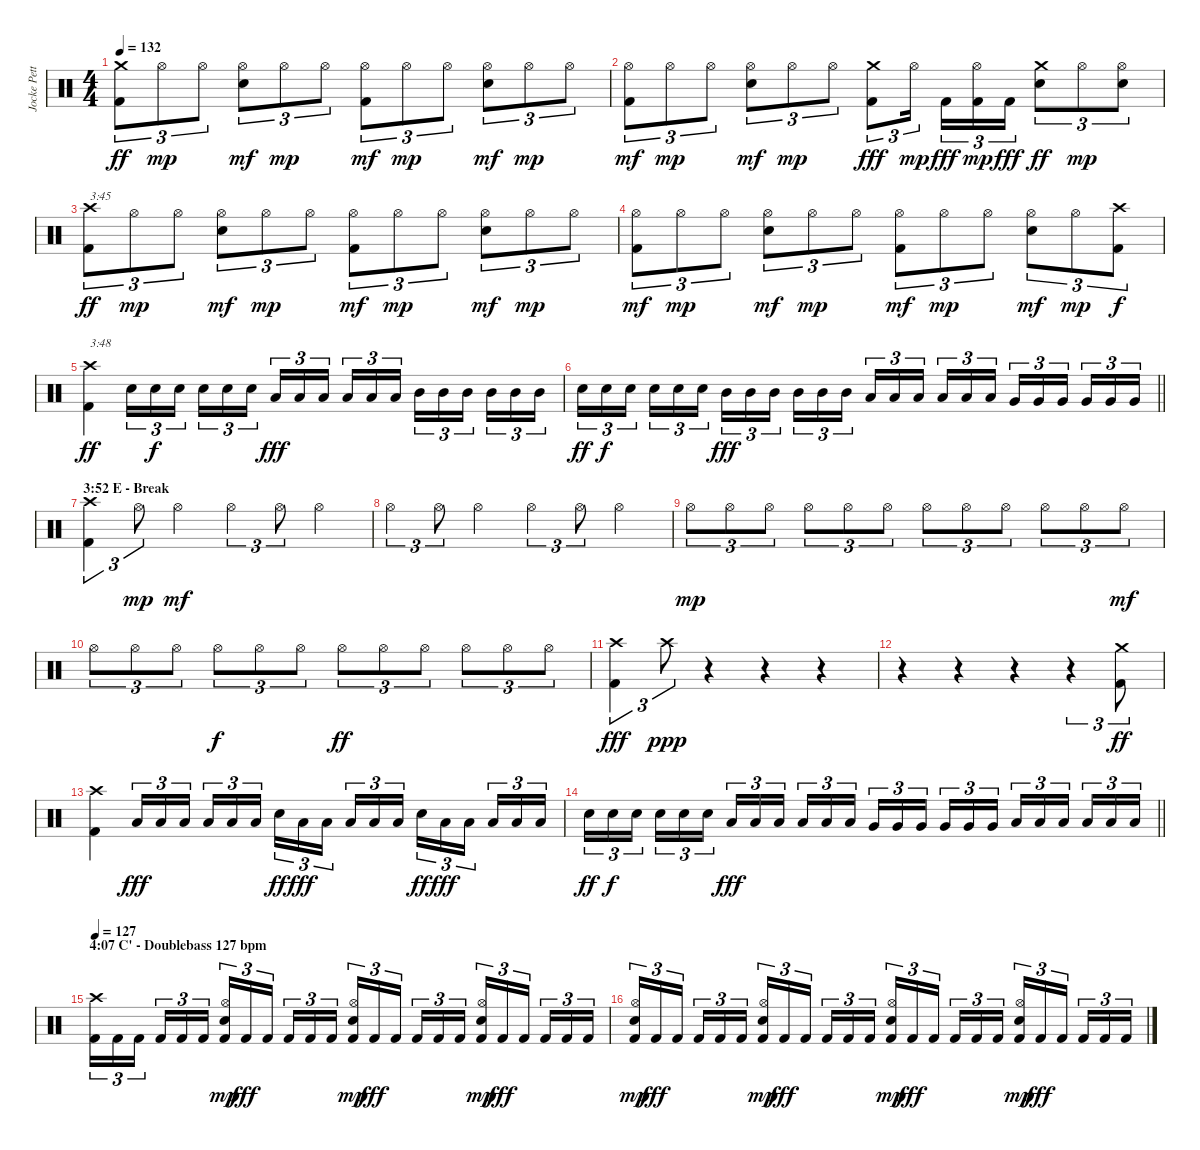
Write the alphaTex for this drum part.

\track ("Jocke Pettersson" "Jocke Pett") {instrument percussion}
\staff {score}
\articulation defaults
\ts (4 4)
\tempo 132
\clef neutral
\ks c
("Kick (hit) 2" "Crash medium (hit)").8{tu (3 2) dy ff} "Hi-Hat (open)".8{tu (3 2) dy mp} "Hi-Hat (open)".8{tu (3 2)} ("Electric Snare (hit)" "Hi-Hat (open)").8{tu (3 2) dy mf} "Hi-Hat (open)".8{tu (3 2) dy mp} "Hi-Hat (open)".8{tu (3 2)} ("Kick (hit) 2" "Hi-Hat (open)").8{tu (3 2) dy mf} "Hi-Hat (open)".8{tu (3 2) dy mp} "Hi-Hat (open)".8{tu (3 2)} ("Electric Snare (hit)" "Hi-Hat (open)").8{tu (3 2) dy mf} "Hi-Hat (open)".8{tu (3 2) dy mp} "Hi-Hat (open)".8{tu (3 2)} |
("Kick (hit) 2" "Hi-Hat (open)").8{tu (3 2) dy mf} "Hi-Hat (open)".8{tu (3 2) dy mp} "Hi-Hat (open)".8{tu (3 2)} ("Electric Snare (hit)" "Hi-Hat (open)").8{tu (3 2) dy mf} "Hi-Hat (open)".8{tu (3 2) dy mp} "Hi-Hat (open)".8{tu (3 2)} ("Kick (hit) 2" "Crash medium (hit)").8{tu (3 2) dy fff} "Hi-Hat (open)".16{tu (3 2) dy mp beam splitsecondary} "Kick (hit) 2".16{tu (3 2) dy fff} ("Kick (hit) 2" "Hi-Hat (open)").16{tu (3 2) dy mp} "Kick (hit) 2".16{tu (3 2) dy fff} ("Electric Snare (hit)" "Crash medium (hit)").8{tu (3 2) dy ff} "Hi-Hat (open)".8{tu (3 2) dy mp} ("Electric Snare (hit)" "Hi-Hat (open)").8{tu (3 2)} |
("Kick (hit) 2" "Crash high (hit)").8{tu (3 2) txt "3:45" dy ff} "Hi-Hat (open)".8{tu (3 2) dy mp} "Hi-Hat (open)".8{tu (3 2)} ("Electric Snare (hit)" "Hi-Hat (open)").8{tu (3 2) dy mf} "Hi-Hat (open)".8{tu (3 2) dy mp} "Hi-Hat (open)".8{tu (3 2)} ("Kick (hit) 2" "Hi-Hat (open)").8{tu (3 2) dy mf} "Hi-Hat (open)".8{tu (3 2) dy mp} "Hi-Hat (open)".8{tu (3 2)} ("Electric Snare (hit)" "Hi-Hat (open)").8{tu (3 2) dy mf} "Hi-Hat (open)".8{tu (3 2) dy mp} "Hi-Hat (open)".8{tu (3 2)} |
("Kick (hit) 2" "Hi-Hat (open)").8{tu (3 2) dy mf} "Hi-Hat (open)".8{tu (3 2) dy mp} "Hi-Hat (open)".8{tu (3 2)} ("Electric Snare (hit)" "Hi-Hat (open)").8{tu (3 2) dy mf} "Hi-Hat (open)".8{tu (3 2) dy mp} "Hi-Hat (open)".8{tu (3 2)} ("Kick (hit) 2" "Hi-Hat (open)").8{tu (3 2) dy mf} "Hi-Hat (open)".8{tu (3 2) dy mp} "Hi-Hat (open)".8{tu (3 2)} ("Electric Snare (hit)" "Hi-Hat (open)").8{tu (3 2) dy mf} "Hi-Hat (open)".8{tu (3 2) dy mp} ("Kick (hit) 2" "Crash high (hit)").8{tu (3 2) dy f} |
("Kick (hit) 2" "Crash high (hit)").4{txt "3:48" dy ff} "Electric Snare (hit)".16{tu (3 2)} "Electric Snare (hit)".16{tu (3 2) dy f} "Electric Snare (hit)".16{tu (3 2) beam splitsecondary} "Electric Snare (hit)".16{tu (3 2)} "Electric Snare (hit)".16{tu (3 2)} "Electric Snare (hit)".16{tu (3 2)} "Low Tom (hit)".16{tu (3 2) dy fff} "Low Tom (hit)".16{tu (3 2)} "Low Tom (hit)".16{tu (3 2) beam splitsecondary} "Low Tom (hit)".16{tu (3 2)} "Low Tom (hit)".16{tu (3 2)} "Low Tom (hit)".16{tu (3 2)} "Mid Tom (hit)".16{tu (3 2)} "Mid Tom (hit)".16{tu (3 2)} "Mid Tom (hit)".16{tu (3 2) beam splitsecondary} "Mid Tom (hit)".16{tu (3 2)} "Mid Tom (hit)".16{tu (3 2)} "Mid Tom (hit)".16{tu (3 2)} |
\barLineRight lightlight "Electric Snare (hit)".16{tu (3 2) dy ff} "Electric Snare (hit)".16{tu (3 2) dy f} "Electric Snare (hit)".16{tu (3 2) beam splitsecondary} "Electric Snare (hit)".16{tu (3 2)} "Electric Snare (hit)".16{tu (3 2)} "Electric Snare (hit)".16{tu (3 2)} "Mid Tom (hit)".16{tu (3 2) dy fff} "Mid Tom (hit)".16{tu (3 2)} "Mid Tom (hit)".16{tu (3 2) beam splitsecondary} "Mid Tom (hit)".16{tu (3 2)} "Mid Tom (hit)".16{tu (3 2)} "Mid Tom (hit)".16{tu (3 2)} "Low Tom (hit)".16{tu (3 2)} "Low Tom (hit)".16{tu (3 2)} "Low Tom (hit)".16{tu (3 2) beam splitsecondary} "Low Tom (hit)".16{tu (3 2)} "Low Tom (hit)".16{tu (3 2)} "Low Tom (hit)".16{tu (3 2)} "Very Low Tom (hit)".16{tu (3 2)} "Very Low Tom (hit)".16{tu (3 2)} "Very Low Tom (hit)".16{tu (3 2) beam splitsecondary} "Very Low Tom (hit)".16{tu (3 2)} "Very Low Tom (hit)".16{tu (3 2)} "Very Low Tom (hit)".16{tu (3 2)}
|
\section ("" "3:52 E - Break")
("Kick (hit) 2" "Crash high (hit)").4{tu (3 2)} "Hi-Hat (open)".8{tu (3 2) dy mp} "Hi-Hat (open)".4{dy mf} "Hi-Hat (open)".4{tu (3 2)} "Hi-Hat (open)".8{tu (3 2)} "Hi-Hat (open)".4 |
"Hi-Hat (open)".4{tu (3 2)} "Hi-Hat (open)".8{tu (3 2)} "Hi-Hat (open)".4 "Hi-Hat (open)".4{tu (3 2)} "Hi-Hat (open)".8{tu (3 2)} "Hi-Hat (open)".4 |
"Hi-Hat (open)".8{tu (3 2) dy mp} "Hi-Hat (open)".8{tu (3 2)} "Hi-Hat (open)".8{tu (3 2)} "Hi-Hat (open)".8{tu (3 2)} "Hi-Hat (open)".8{tu (3 2)} "Hi-Hat (open)".8{tu (3 2)} "Hi-Hat (open)".8{tu (3 2)} "Hi-Hat (open)".8{tu (3 2)} "Hi-Hat (open)".8{tu (3 2)} "Hi-Hat (open)".8{tu (3 2)} "Hi-Hat (open)".8{tu (3 2)} "Hi-Hat (open)".8{tu (3 2) dy mf} |
"Hi-Hat (open)".8{tu (3 2)} "Hi-Hat (open)".8{tu (3 2)} "Hi-Hat (open)".8{tu (3 2)} "Hi-Hat (open)".8{tu (3 2) dy f} "Hi-Hat (open)".8{tu (3 2)} "Hi-Hat (open)".8{tu (3 2)} "Hi-Hat (open)".8{tu (3 2) dy ff} "Hi-Hat (open)".8{tu (3 2)} "Hi-Hat (open)".8{tu (3 2)} "Hi-Hat (open)".8{tu (3 2)} "Hi-Hat (open)".8{tu (3 2)} "Hi-Hat (open)".8{tu (3 2)} |
("Kick (hit) 2" "Crash high (hit)").4{tu (3 2) dy fff} "Crash high (hit)".8{tu (3 2) dy ppp} r.4 r.4 r.4 |
r.4 r.4 r.4 r.4{tu (3 2)} ("Kick (hit) 2" "Crash medium (hit)").8{tu (3 2) dy ff} |
("Kick (hit) 2" "Crash high (hit)").4 "Low Tom (hit)".16{tu (3 2) dy fff} "Low Tom (hit)".16{tu (3 2)} "Low Tom (hit)".16{tu (3 2) beam splitsecondary} "Low Tom (hit)".16{tu (3 2)} "Low Tom (hit)".16{tu (3 2)} "Low Tom (hit)".16{tu (3 2)} "Electric Snare (hit)".16{tu (3 2) dy ff} "Low Tom (hit)".16{tu (3 2) dy fff} "Low Tom (hit)".16{tu (3 2) beam splitsecondary} "Low Tom (hit)".16{tu (3 2)} "Low Tom (hit)".16{tu (3 2)} "Low Tom (hit)".16{tu (3 2)} "Electric Snare (hit)".16{tu (3 2) dy ff} "Low Tom (hit)".16{tu (3 2) dy fff} "Low Tom (hit)".16{tu (3 2) beam splitsecondary} "Low Tom (hit)".16{tu (3 2)} "Low Tom (hit)".16{tu (3 2)} "Low Tom (hit)".16{tu (3 2)} |
\barLineRight lightlight "Electric Snare (hit)".16{tu (3 2) dy ff} "Electric Snare (hit)".16{tu (3 2) dy f} "Electric Snare (hit)".16{tu (3 2) beam splitsecondary} "Electric Snare (hit)".16{tu (3 2)} "Electric Snare (hit)".16{tu (3 2)} "Electric Snare (hit)".16{tu (3 2)} "Low Tom (hit)".16{tu (3 2) dy fff} "Low Tom (hit)".16{tu (3 2)} "Low Tom (hit)".16{tu (3 2) beam splitsecondary} "Low Tom (hit)".16{tu (3 2)} "Low Tom (hit)".16{tu (3 2)} "Low Tom (hit)".16{tu (3 2)} "Very Low Tom (hit)".16{tu (3 2)} "Very Low Tom (hit)".16{tu (3 2)} "Very Low Tom (hit)".16{tu (3 2) beam splitsecondary} "Very Low Tom (hit)".16{tu (3 2)} "Very Low Tom (hit)".16{tu (3 2)} "Very Low Tom (hit)".16{tu (3 2)} "Low Floor Tom (hit)".16{tu (3 2)} "Low Floor Tom (hit)".16{tu (3 2)} "Low Floor Tom (hit)".16{tu (3 2) beam splitsecondary} "Low Floor Tom (hit)".16{tu (3 2)} "Low Floor Tom (hit)".16{tu (3 2)} "Low Floor Tom (hit)".16{tu (3 2)}
|
\section ("" "4:07 C' - Doublebass 127 bpm")
\tempo 127
("Kick (hit) 2" "Crash high (hit)").16{tu (3 2)} "Kick (hit) 2".16{tu (3 2)} "Kick (hit) 2".16{tu (3 2) beam splitsecondary} "Kick (hit) 2".16{tu (3 2)} "Kick (hit) 2".16{tu (3 2)} "Kick (hit) 2".16{tu (3 2)} ("Kick (hit) 2" "Electric Snare (hit)" "Hi-Hat (open)").16{tu (3 2) dy mp} "Kick (hit) 2".16{tu (3 2) dy fff} "Kick (hit) 2".16{tu (3 2) beam splitsecondary} "Kick (hit) 2".16{tu (3 2)} "Kick (hit) 2".16{tu (3 2)} "Kick (hit) 2".16{tu (3 2)} ("Kick (hit) 2" "Electric Snare (hit)" "Hi-Hat (open)").16{tu (3 2) dy mp} "Kick (hit) 2".16{tu (3 2) dy fff} "Kick (hit) 2".16{tu (3 2) beam splitsecondary} "Kick (hit) 2".16{tu (3 2)} "Kick (hit) 2".16{tu (3 2)} "Kick (hit) 2".16{tu (3 2)} ("Kick (hit) 2" "Electric Snare (hit)" "Hi-Hat (open)").16{tu (3 2) dy mp} "Kick (hit) 2".16{tu (3 2) dy fff} "Kick (hit) 2".16{tu (3 2) beam splitsecondary} "Kick (hit) 2".16{tu (3 2)} "Kick (hit) 2".16{tu (3 2)} "Kick (hit) 2".16{tu (3 2)} |
("Kick (hit) 2" "Electric Snare (hit)" "Hi-Hat (open)").16{tu (3 2) dy mp} "Kick (hit) 2".16{tu (3 2) dy fff} "Kick (hit) 2".16{tu (3 2) beam splitsecondary} "Kick (hit) 2".16{tu (3 2)} "Kick (hit) 2".16{tu (3 2)} "Kick (hit) 2".16{tu (3 2)} ("Kick (hit) 2" "Electric Snare (hit)" "Hi-Hat (open)").16{tu (3 2) dy mp} "Kick (hit) 2".16{tu (3 2) dy fff} "Kick (hit) 2".16{tu (3 2) beam splitsecondary} "Kick (hit) 2".16{tu (3 2)} "Kick (hit) 2".16{tu (3 2)} "Kick (hit) 2".16{tu (3 2)} ("Kick (hit) 2" "Electric Snare (hit)" "Hi-Hat (open)").16{tu (3 2) dy mp} "Kick (hit) 2".16{tu (3 2) dy fff} "Kick (hit) 2".16{tu (3 2) beam splitsecondary} "Kick (hit) 2".16{tu (3 2)} "Kick (hit) 2".16{tu (3 2)} "Kick (hit) 2".16{tu (3 2)} ("Kick (hit) 2" "Electric Snare (hit)" "Hi-Hat (open)").16{tu (3 2) dy mp} "Kick (hit) 2".16{tu (3 2) dy fff} "Kick (hit) 2".16{tu (3 2) beam splitsecondary} "Kick (hit) 2".16{tu (3 2)} "Kick (hit) 2".16{tu (3 2)} "Kick (hit) 2".16{tu (3 2)}
